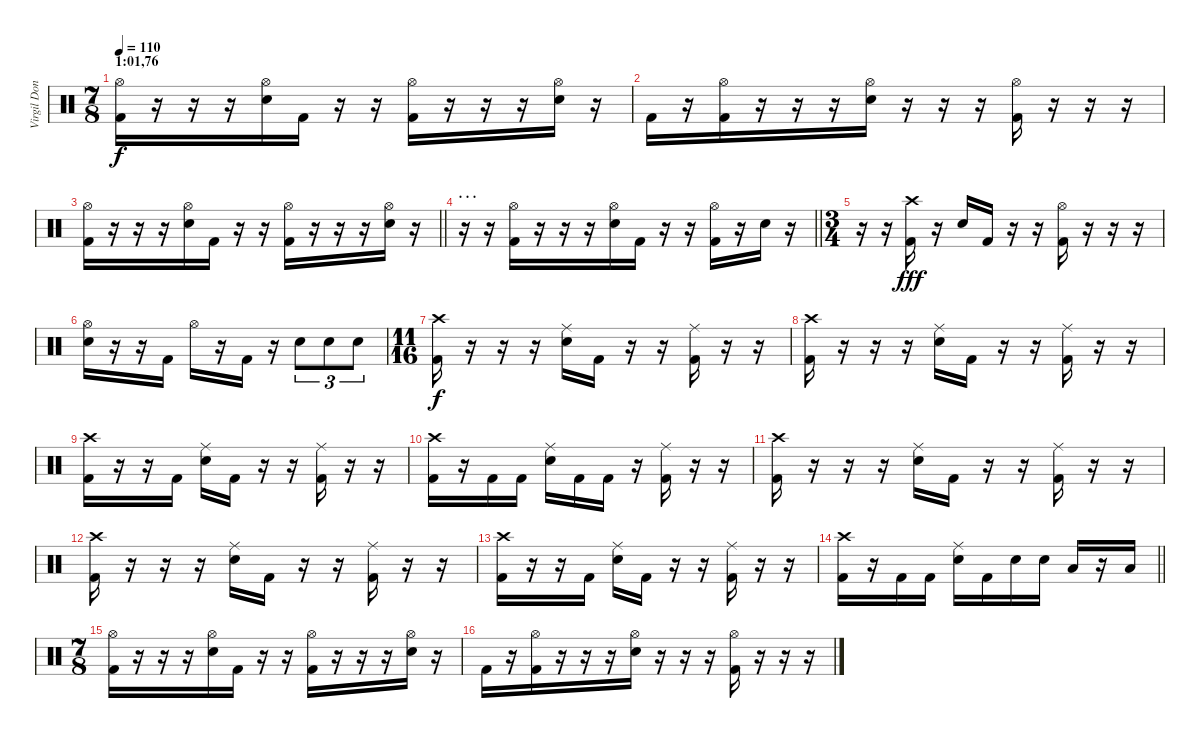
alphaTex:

\track ("Virgil Donati" "Virgil Don") {instrument percussion}
\staff {score}
\articulation defaults
\ts (7 8)
\section ("" "1:01,76")
\tempo 110
\clef neutral
\ks c
("Hi-Hat (open)" "Kick (hit) 2").16{dy f} r.16 r.16 r.16 ("Hi-Hat (open)" "Electric Snare (hit)").16 "Kick (hit) 2".16 r.16 r.16 ("Hi-Hat (open)" "Kick (hit) 2").16 r.16 r.16 r.16 ("Hi-Hat (open)" "Electric Snare (hit)").16 r.16 |
"Kick (hit) 2".16 r.16 ("Hi-Hat (open)" "Kick (hit) 2").16 r.16 r.16 r.16 ("Hi-Hat (open)" "Electric Snare (hit)").16 r.16 r.16 r.16 ("Hi-Hat (open)" "Kick (hit) 2").16 r.16 r.16 r.16 |
\barLineRight lightlight
("Hi-Hat (open)" "Kick (hit) 2").16 r.16 r.16 r.16 ("Hi-Hat (open)" "Electric Snare (hit)").16 "Kick (hit) 2".16 r.16 r.16 ("Hi-Hat (open)" "Kick (hit) 2").16 r.16 r.16 r.16 ("Hi-Hat (open)" "Electric Snare (hit)").16 r.16 |
\section ("" ". . .")
\barLineRight lightlight
r.16 r.16 ("Hi-Hat (open)" "Kick (hit) 2").16 r.16 r.16 r.16 ("Hi-Hat (open)" "Electric Snare (hit)").16 "Kick (hit) 2".16 r.16 r.16 ("Hi-Hat (open)" "Kick (hit) 2").16 r.16 "Electric Snare (hit)".16 r.16 |
\ts (3 4)
r.16 r.16 ("Crash high (hit)" "Kick (hit) 2").16{dy fff} r.16 "Electric Snare (hit)".16 "Kick (hit) 2".16 r.16 r.16 ("Hi-Hat (open)" "Kick (hit) 2").16 r.16 r.16 r.16 |
("Hi-Hat (open)" "Electric Snare (hit)").16 r.16 r.16 "Kick (hit) 2".16 "Hi-Hat (open)".16 r.16 "Kick (hit) 2".16 r.16 "Electric Snare (hit)".8{tu (3 2)} "Electric Snare (hit)".8{tu (3 2)} "Electric Snare (hit)".8{tu (3 2)} |
\ts (11 16)
("Crash high (hit)" "Kick (hit) 2").16{dy f} r.16 r.16 r.16 ("Ride (middle)" "Electric Snare (hit)").16 "Kick (hit) 2".16 r.16 r.16 ("Ride (middle)" "Kick (hit) 2").16 r.16 r.16 |
("Crash high (hit)" "Kick (hit) 2").16 r.16 r.16 r.16 ("Ride (middle)" "Electric Snare (hit)").16 "Kick (hit) 2".16 r.16 r.16 ("Ride (middle)" "Kick (hit) 2").16 r.16 r.16 |
("Crash high (hit)" "Kick (hit) 2").16 r.16 r.16 "Kick (hit) 2".16 ("Ride (middle)" "Electric Snare (hit)").16 "Kick (hit) 2".16 r.16 r.16 ("Ride (middle)" "Kick (hit) 2").16 r.16 r.16 |
("Crash high (hit)" "Kick (hit) 2").16 r.16 "Kick (hit) 2".16 "Kick (hit) 2".16 ("Ride (middle)" "Electric Snare (hit)").16 "Kick (hit) 2".16 "Kick (hit) 2".16 r.16 ("Ride (middle)" "Kick (hit) 2").16 r.16 r.16 |
("Crash high (hit)" "Kick (hit) 2").16 r.16 r.16 r.16 ("Ride (middle)" "Electric Snare (hit)").16 "Kick (hit) 2".16 r.16 r.16 ("Ride (middle)" "Kick (hit) 2").16 r.16 r.16 |
("Crash high (hit)" "Kick (hit) 2").16 r.16 r.16 r.16 ("Ride (middle)" "Electric Snare (hit)").16 "Kick (hit) 2".16 r.16 r.16 ("Ride (middle)" "Kick (hit) 2").16 r.16 r.16 |
("Crash high (hit)" "Kick (hit) 2").16 r.16 r.16 "Kick (hit) 2".16 ("Ride (middle)" "Electric Snare (hit)").16 "Kick (hit) 2".16 r.16 r.16 ("Ride (middle)" "Kick (hit) 2").16 r.16 r.16 |
\barLineRight lightlight
("Crash high (hit)" "Kick (hit) 2").16 r.16 "Kick (hit) 2".16 "Kick (hit) 2".16 ("Ride (middle)" "Electric Snare (hit)").16 "Kick (hit) 2".16 "Electric Snare (hit)".16 "Electric Snare (hit)".16 "Low Tom (hit)".16 r.16 "Low Tom (hit)".16 |
\ts (7 8)
("Hi-Hat (open)" "Kick (hit) 2").16 r.16 r.16 r.16 ("Hi-Hat (open)" "Electric Snare (hit)").16 "Kick (hit) 2".16 r.16 r.16 ("Hi-Hat (open)" "Kick (hit) 2").16 r.16 r.16 r.16 ("Hi-Hat (open)" "Electric Snare (hit)").16 r.16 |
"Kick (hit) 2".16 r.16 ("Hi-Hat (open)" "Kick (hit) 2").16 r.16 r.16 r.16 ("Hi-Hat (open)" "Electric Snare (hit)").16 r.16 r.16 r.16 ("Hi-Hat (open)" "Kick (hit) 2").16 r.16 r.16 r.16
